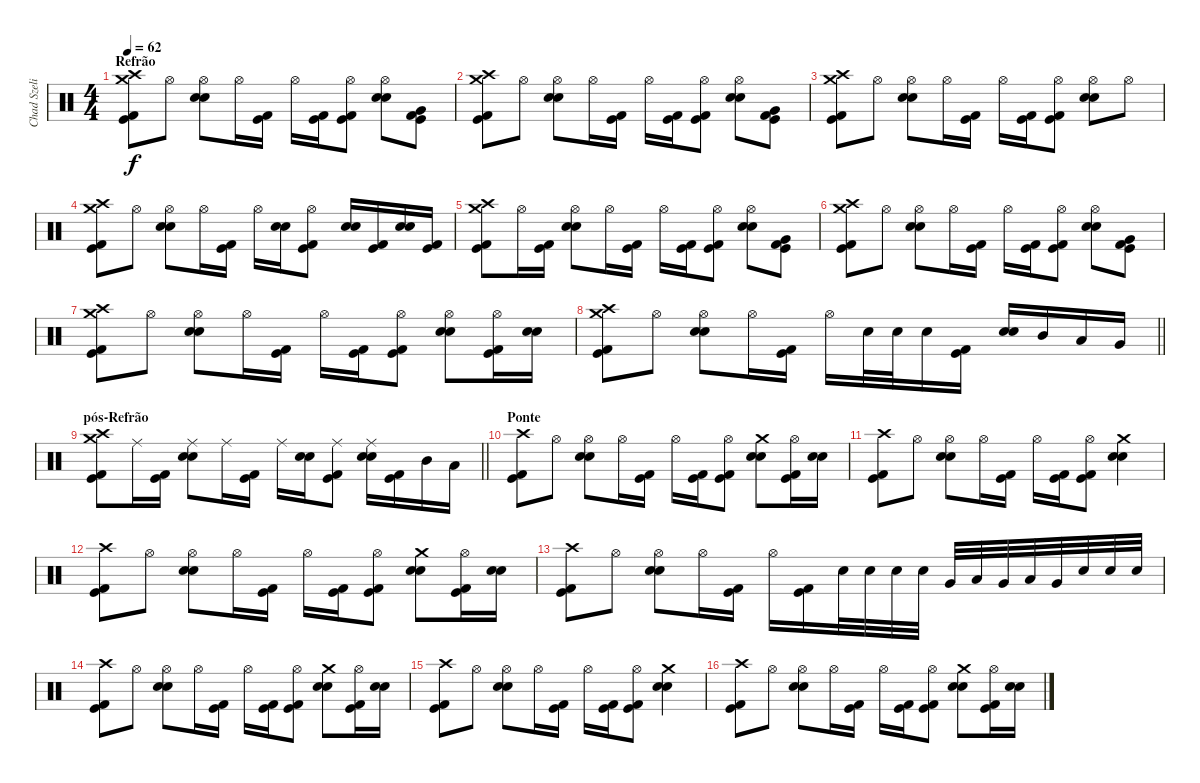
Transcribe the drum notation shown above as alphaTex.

\track ("Chad Szeliga" "Chad Szeli") {instrument percussion}
\staff {score}
\articulation defaults
\ts (4 4)
\section ("" "Refrão")
\tempo 62
\clef neutral
\ks c
("Crash high (hit)" "Kick (hit) 2" "Kick (hit)" "Crash medium (hit)").8{dy f} "Hi-Hat (open)".8 ("Snare (hit) 2" "Snare (hit) 2" "Hi-Hat (open)").8 "Hi-Hat (open)".16 ("Kick (hit) 2" "Kick (hit)").16 "Hi-Hat (open)".16 ("Kick (hit) 2" "Kick (hit)").16 ("Kick (hit) 2" "Kick (hit)" "Hi-Hat (open)").8 ("Snare (hit) 2" "Snare (hit) 2" "Hi-Hat (open)").8 ("Kick (hit) 2" "Kick (hit)" "Very Low Tom (hit)").8 |
("Crash high (hit)" "Kick (hit) 2" "Kick (hit)" "Crash medium (hit)").8 "Hi-Hat (open)".8 ("Snare (hit) 2" "Snare (hit) 2" "Hi-Hat (open)").8 "Hi-Hat (open)".16 ("Kick (hit) 2" "Kick (hit)").16 "Hi-Hat (open)".16 ("Kick (hit) 2" "Kick (hit)").16 ("Kick (hit) 2" "Kick (hit)" "Hi-Hat (open)").8 ("Snare (hit) 2" "Snare (hit) 2" "Hi-Hat (open)").8 ("Kick (hit) 2" "Kick (hit)" "Very Low Tom (hit)").8 |
("Crash high (hit)" "Kick (hit) 2" "Kick (hit)" "Crash medium (hit)").8 "Hi-Hat (open)".8 ("Snare (hit) 2" "Snare (hit) 2" "Hi-Hat (open)").8 "Hi-Hat (open)".16 ("Kick (hit) 2" "Kick (hit)").16 "Hi-Hat (open)".16 ("Kick (hit) 2" "Kick (hit)").16 ("Kick (hit) 2" "Kick (hit)" "Hi-Hat (open)").8 ("Snare (hit) 2" "Snare (hit) 2" "Hi-Hat (open)").8 "Hi-Hat (open)".8 |
("Crash high (hit)" "Kick (hit) 2" "Kick (hit)" "Crash medium (hit)").8 "Hi-Hat (open)".8 ("Snare (hit) 2" "Snare (hit) 2" "Hi-Hat (open)").8 "Hi-Hat (open)".16 ("Kick (hit) 2" "Kick (hit)").16 "Hi-Hat (open)".16 ("Snare (hit) 2" "Snare (hit) 2").16 ("Kick (hit) 2" "Kick (hit)" "Hi-Hat (open)").8 ("Snare (hit) 2" "Snare (hit) 2").16 ("Kick (hit) 2" "Kick (hit)").16 ("Snare (hit) 2" "Snare (hit) 2").16 ("Kick (hit) 2" "Kick (hit)").16 |
("Crash high (hit)" "Kick (hit) 2" "Kick (hit)" "Crash medium (hit)").8 "Hi-Hat (open)".16 ("Kick (hit) 2" "Kick (hit)").16 ("Snare (hit) 2" "Snare (hit) 2" "Hi-Hat (open)").8 "Hi-Hat (open)".16 ("Kick (hit) 2" "Kick (hit)").16 "Hi-Hat (open)".16 ("Kick (hit) 2" "Kick (hit)").16 ("Kick (hit) 2" "Kick (hit)" "Hi-Hat (open)").8 ("Snare (hit) 2" "Snare (hit) 2" "Hi-Hat (open)").8 ("Kick (hit) 2" "Kick (hit)" "Very Low Tom (hit)").8 |
("Crash high (hit)" "Kick (hit) 2" "Kick (hit)" "Crash medium (hit)").8 "Hi-Hat (open)".8 ("Snare (hit) 2" "Snare (hit) 2" "Hi-Hat (open)").8 "Hi-Hat (open)".16 ("Kick (hit) 2" "Kick (hit)").16 "Hi-Hat (open)".16 ("Kick (hit) 2" "Kick (hit)").16 ("Kick (hit) 2" "Kick (hit)" "Hi-Hat (open)").8 ("Snare (hit) 2" "Snare (hit) 2" "Hi-Hat (open)").8 ("Kick (hit) 2" "Kick (hit)" "Very Low Tom (hit)").8 |
("Crash high (hit)" "Kick (hit) 2" "Kick (hit)" "Crash medium (hit)").8 "Hi-Hat (open)".8 ("Snare (hit) 2" "Snare (hit) 2" "Hi-Hat (open)").8 "Hi-Hat (open)".16 ("Kick (hit) 2" "Kick (hit)").16 "Hi-Hat (open)".16 ("Kick (hit) 2" "Kick (hit)").16 ("Kick (hit) 2" "Kick (hit)" "Hi-Hat (open)").8 ("Snare (hit) 2" "Snare (hit) 2" "Hi-Hat (open)").8 ("Kick (hit) 2" "Kick (hit)" "Hi-Hat (open)").16 ("Snare (hit) 2" "Snare (hit) 2").16 |
\barLineRight lightlight
("Crash high (hit)" "Kick (hit) 2" "Kick (hit)" "Crash medium (hit)").8 "Hi-Hat (open)".8 ("Snare (hit) 2" "Snare (hit) 2" "Hi-Hat (open)").8 "Hi-Hat (open)".16 ("Kick (hit) 2" "Kick (hit)").16 "Hi-Hat (open)".16 "Snare (hit) 2".32 "Snare (hit) 2".32 "Snare (hit) 2".16 ("Kick (hit) 2" "Kick (hit)").16 ("Snare (hit) 2" "Snare (hit) 2").16 "Mid Tom (hit)".16 "Low Tom (hit)".16 "Very Low Tom (hit)".16 |
\section ("" "pós-Refrão")
\barLineRight lightlight
("Crash high (hit)" "Kick (hit) 2" "Kick (hit)" "Crash medium (hit)").8 "Ride (middle)".16 ("Kick (hit) 2" "Kick (hit)").16 ("Ride (middle)" "Snare (hit) 2" "Snare (hit) 2").8 "Ride (middle)".16 ("Kick (hit) 2" "Kick (hit)").16 "Ride (middle)".16 ("Snare (hit) 2" "Snare (hit) 2").16 ("Ride (middle)" "Kick (hit) 2" "Kick (hit)").8 ("Ride (middle)" "Snare (hit) 2" "Snare (hit) 2").16 ("Kick (hit) 2" "Kick (hit)").16 "Mid Tom (hit)".16 "Low Tom (hit)".16 |
\section ("" "Ponte")
("Crash high (hit)" "Kick (hit) 2" "Kick (hit)").8 "Hi-Hat (open)".8 ("Snare (hit) 2" "Snare (hit) 2" "Hi-Hat (open)").8 "Hi-Hat (open)".16 ("Kick (hit) 2" "Kick (hit)").16 "Hi-Hat (open)".16 ("Kick (hit) 2" "Kick (hit)").16 ("Kick (hit) 2" "Kick (hit)" "Hi-Hat (open)").8 ("Crash medium (hit)" "Snare (hit) 2" "Snare (hit) 2").8 ("Kick (hit) 2" "Kick (hit)" "Hi-Hat (open)").16 ("Snare (hit) 2" "Snare (hit) 2").16 |
("Crash high (hit)" "Kick (hit) 2" "Kick (hit)").8 "Hi-Hat (open)".8 ("Snare (hit) 2" "Snare (hit) 2" "Hi-Hat (open)").8 "Hi-Hat (open)".16 ("Kick (hit) 2" "Kick (hit)").16 "Hi-Hat (open)".16 ("Kick (hit) 2" "Kick (hit)").16 ("Kick (hit) 2" "Kick (hit)" "Hi-Hat (open)").8 ("Crash medium (hit)" "Snare (hit) 2" "Snare (hit) 2").4 |
("Crash high (hit)" "Kick (hit) 2" "Kick (hit)").8 "Hi-Hat (open)".8 ("Snare (hit) 2" "Snare (hit) 2" "Hi-Hat (open)").8 "Hi-Hat (open)".16 ("Kick (hit) 2" "Kick (hit)").16 "Hi-Hat (open)".16 ("Kick (hit) 2" "Kick (hit)").16 ("Kick (hit) 2" "Kick (hit)" "Hi-Hat (open)").8 ("Crash medium (hit)" "Snare (hit) 2" "Snare (hit) 2").8 ("Kick (hit) 2" "Kick (hit)" "Hi-Hat (open)").16 ("Snare (hit) 2" "Snare (hit) 2").16 |
("Crash high (hit)" "Kick (hit) 2" "Kick (hit)").8 "Hi-Hat (open)".8 ("Snare (hit) 2" "Snare (hit) 2" "Hi-Hat (open)").8 "Hi-Hat (open)".16 ("Kick (hit) 2" "Kick (hit)").16 "Hi-Hat (open)".16 ("Kick (hit) 2" "Kick (hit)").16 "Snare (hit) 2".32 "Snare (hit) 2".32 "Snare (hit) 2".32 "Snare (hit) 2".32 "Very Low Tom (hit)".32 "Low Tom (hit)".32 "Very Low Tom (hit)".32 "Low Tom (hit)".32 "Very Low Tom (hit)".32 "Snare (hit) 2".32 "Snare (hit) 2".32 "Snare (hit) 2".32 |
("Crash high (hit)" "Kick (hit) 2" "Kick (hit)").8 "Hi-Hat (open)".8 ("Snare (hit) 2" "Snare (hit) 2" "Hi-Hat (open)").8 "Hi-Hat (open)".16 ("Kick (hit) 2" "Kick (hit)").16 "Hi-Hat (open)".16 ("Kick (hit) 2" "Kick (hit)").16 ("Kick (hit) 2" "Kick (hit)" "Hi-Hat (open)").8 ("Crash medium (hit)" "Snare (hit) 2" "Snare (hit) 2").8 ("Kick (hit) 2" "Kick (hit)" "Hi-Hat (open)").16 ("Snare (hit) 2" "Snare (hit) 2").16 |
("Crash high (hit)" "Kick (hit) 2" "Kick (hit)").8 "Hi-Hat (open)".8 ("Snare (hit) 2" "Snare (hit) 2" "Hi-Hat (open)").8 "Hi-Hat (open)".16 ("Kick (hit) 2" "Kick (hit)").16 "Hi-Hat (open)".16 ("Kick (hit) 2" "Kick (hit)").16 ("Kick (hit) 2" "Kick (hit)" "Hi-Hat (open)").8 ("Crash medium (hit)" "Snare (hit) 2" "Snare (hit) 2").4 |
("Crash high (hit)" "Kick (hit) 2" "Kick (hit)").8 "Hi-Hat (open)".8 ("Snare (hit) 2" "Snare (hit) 2" "Hi-Hat (open)").8 "Hi-Hat (open)".16 ("Kick (hit) 2" "Kick (hit)").16 "Hi-Hat (open)".16 ("Kick (hit) 2" "Kick (hit)").16 ("Kick (hit) 2" "Kick (hit)" "Hi-Hat (open)").8 ("Crash medium (hit)" "Snare (hit) 2" "Snare (hit) 2").8 ("Kick (hit) 2" "Kick (hit)" "Hi-Hat (open)").16 ("Snare (hit) 2" "Snare (hit) 2").16
